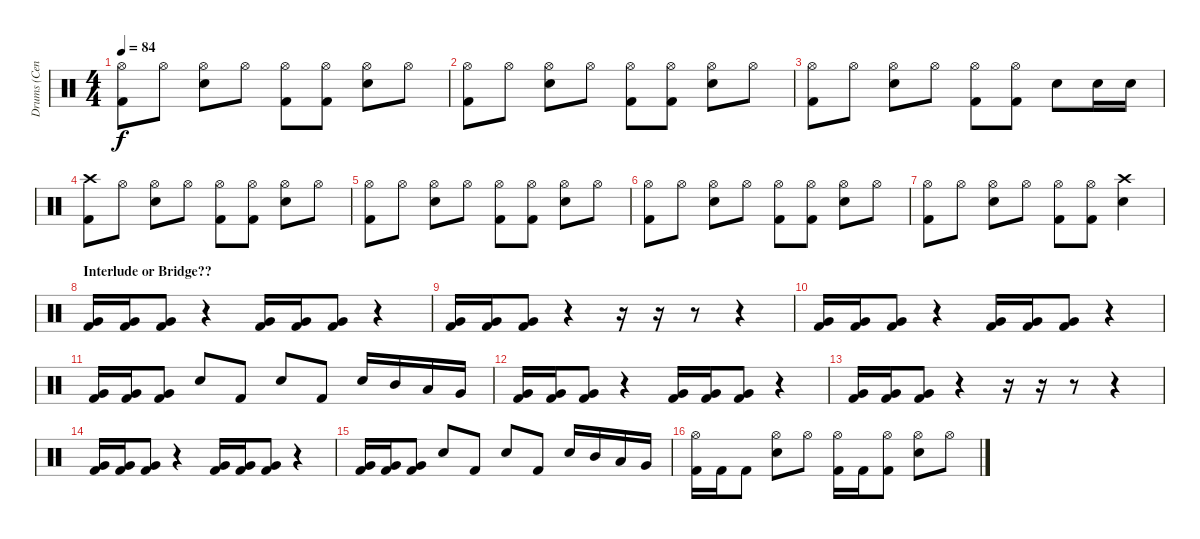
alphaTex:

\track ("Drums (Cenk)" "Drums (Cen") {instrument percussion}
\staff {score}
\articulation defaults
\ts (4 4)
\tempo 84
\clef neutral
\ks c
("Hi-Hat (open)" "Kick (hit) 2").8{dy f} "Hi-Hat (open)".8 ("Hi-Hat (open)" "Snare (hit) 2").8 "Hi-Hat (open)".8 ("Hi-Hat (open)" "Kick (hit) 2").8 ("Hi-Hat (open)" "Kick (hit) 2").8 ("Hi-Hat (open)" "Snare (hit) 2").8 "Hi-Hat (open)".8 |
("Hi-Hat (open)" "Kick (hit) 2").8 "Hi-Hat (open)".8 ("Hi-Hat (open)" "Snare (hit) 2").8 "Hi-Hat (open)".8 ("Hi-Hat (open)" "Kick (hit) 2").8 ("Hi-Hat (open)" "Kick (hit) 2").8 ("Hi-Hat (open)" "Snare (hit) 2").8 "Hi-Hat (open)".8 |
("Hi-Hat (open)" "Kick (hit) 2").8 "Hi-Hat (open)".8 ("Hi-Hat (open)" "Snare (hit) 2").8 "Hi-Hat (open)".8 ("Hi-Hat (open)" "Kick (hit) 2").8 ("Hi-Hat (open)" "Kick (hit) 2").8 "Snare (hit) 2".8 "Snare (hit) 2".16 "Snare (hit) 2".16 |
("Crash high (hit)" "Kick (hit) 2").8 "Hi-Hat (open)".8 ("Hi-Hat (open)" "Snare (hit) 2").8 "Hi-Hat (open)".8 ("Hi-Hat (open)" "Kick (hit) 2").8 ("Hi-Hat (open)" "Kick (hit) 2").8 ("Hi-Hat (open)" "Snare (hit) 2").8 "Hi-Hat (open)".8 |
("Hi-Hat (open)" "Kick (hit) 2").8 "Hi-Hat (open)".8 ("Hi-Hat (open)" "Snare (hit) 2").8 "Hi-Hat (open)".8 ("Hi-Hat (open)" "Kick (hit) 2").8 ("Hi-Hat (open)" "Kick (hit) 2").8 ("Hi-Hat (open)" "Snare (hit) 2").8 "Hi-Hat (open)".8 |
("Hi-Hat (open)" "Kick (hit) 2").8 "Hi-Hat (open)".8 ("Hi-Hat (open)" "Snare (hit) 2").8 "Hi-Hat (open)".8 ("Hi-Hat (open)" "Kick (hit) 2").8 ("Hi-Hat (open)" "Kick (hit) 2").8 ("Hi-Hat (open)" "Snare (hit) 2").8 "Hi-Hat (open)".8 |
("Hi-Hat (open)" "Kick (hit) 2").8 "Hi-Hat (open)".8 ("Hi-Hat (open)" "Snare (hit) 2").8 "Hi-Hat (open)".8 ("Hi-Hat (open)" "Kick (hit) 2").8 ("Hi-Hat (open)" "Kick (hit) 2").8 ("Crash high (hit)" "Snare (hit) 2").4 |
\section ("" "Interlude or Bridge??")
("Very Low Tom (hit)" "Kick (hit) 2").16 ("Very Low Tom (hit)" "Kick (hit) 2").16 ("Very Low Tom (hit)" "Kick (hit) 2").8 r.4 ("Very Low Tom (hit)" "Kick (hit) 2").16 ("Very Low Tom (hit)" "Kick (hit) 2").16 ("Very Low Tom (hit)" "Kick (hit) 2").8 r.4 |
("Very Low Tom (hit)" "Kick (hit) 2").16 ("Very Low Tom (hit)" "Kick (hit) 2").16 ("Very Low Tom (hit)" "Kick (hit) 2").8 r.4 r.16 r.16 r.8 r.4 |
("Very Low Tom (hit)" "Kick (hit) 2").16 ("Very Low Tom (hit)" "Kick (hit) 2").16 ("Very Low Tom (hit)" "Kick (hit) 2").8 r.4 ("Very Low Tom (hit)" "Kick (hit) 2").16 ("Very Low Tom (hit)" "Kick (hit) 2").16 ("Very Low Tom (hit)" "Kick (hit) 2").8 r.4 |
("Very Low Tom (hit)" "Kick (hit) 2").16 ("Very Low Tom (hit)" "Kick (hit) 2").16 ("Very Low Tom (hit)" "Kick (hit) 2").8 "Snare (hit) 2".8 "Kick (hit) 2".8 "Snare (hit) 2".8 "Kick (hit) 2".8 "Snare (hit) 2".16 "Mid Tom (hit)".16 "Low Tom (hit)".16 "Very Low Tom (hit)".16 |
("Very Low Tom (hit)" "Kick (hit) 2").16 ("Very Low Tom (hit)" "Kick (hit) 2").16 ("Very Low Tom (hit)" "Kick (hit) 2").8 r.4 ("Very Low Tom (hit)" "Kick (hit) 2").16 ("Very Low Tom (hit)" "Kick (hit) 2").16 ("Very Low Tom (hit)" "Kick (hit) 2").8 r.4 |
("Very Low Tom (hit)" "Kick (hit) 2").16 ("Very Low Tom (hit)" "Kick (hit) 2").16 ("Very Low Tom (hit)" "Kick (hit) 2").8 r.4 r.16 r.16 r.8 r.4 |
("Very Low Tom (hit)" "Kick (hit) 2").16 ("Very Low Tom (hit)" "Kick (hit) 2").16 ("Very Low Tom (hit)" "Kick (hit) 2").8 r.4 ("Very Low Tom (hit)" "Kick (hit) 2").16 ("Very Low Tom (hit)" "Kick (hit) 2").16 ("Very Low Tom (hit)" "Kick (hit) 2").8 r.4 |
("Very Low Tom (hit)" "Kick (hit) 2").16 ("Very Low Tom (hit)" "Kick (hit) 2").16 ("Very Low Tom (hit)" "Kick (hit) 2").8 "Snare (hit) 2".8 "Kick (hit) 2".8 "Snare (hit) 2".8 "Kick (hit) 2".8 "Snare (hit) 2".16 "Mid Tom (hit)".16 "Low Tom (hit)".16 "Very Low Tom (hit)".16 |
("Hi-Hat (open)" "Kick (hit) 2").16 "Kick (hit) 2".16 "Kick (hit) 2".8 ("Hi-Hat (open)" "Snare (hit) 2").8 "Hi-Hat (open)".8 ("Hi-Hat (open)" "Kick (hit) 2").16 "Kick (hit) 2".16 ("Hi-Hat (open)" "Kick (hit) 2").8 ("Hi-Hat (open)" "Snare (hit) 2").8 "Hi-Hat (open)".8
